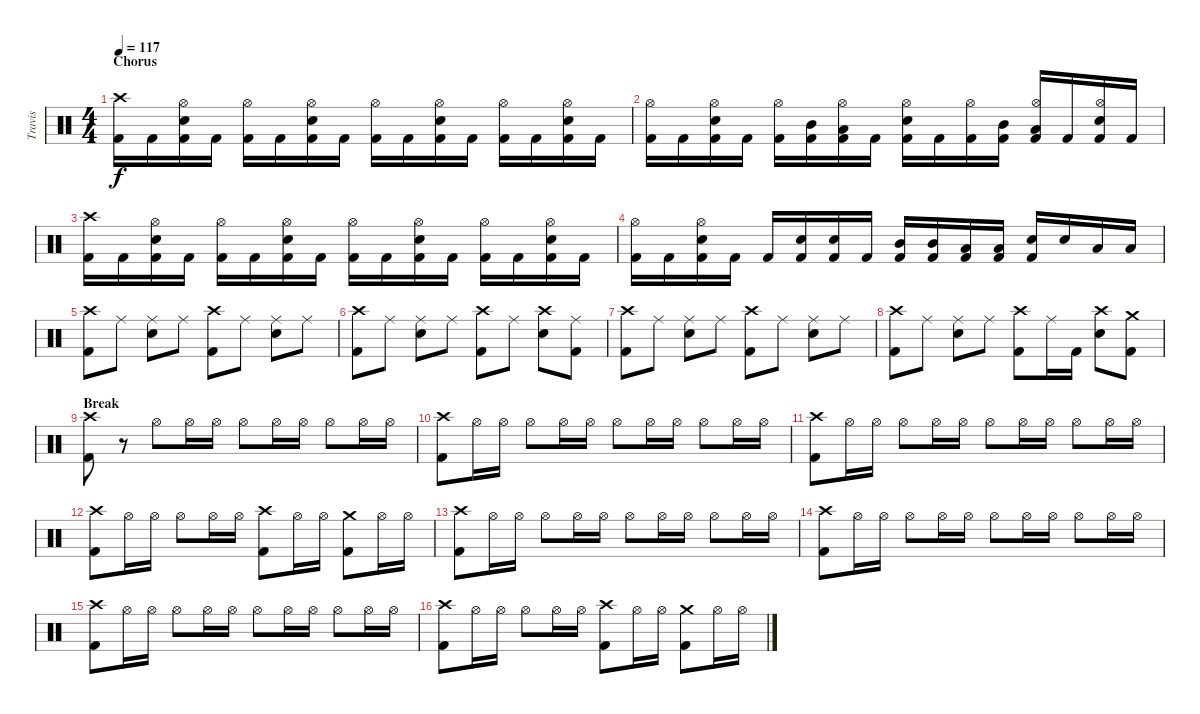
\track ("Travis" "Travis") {instrument percussion}
\staff {score}
\articulation defaults
\ts (4 4)
\section ("" "Chorus")
\tempo 117
\clef neutral
\ks c
("Crash high (hit)" "Kick (hit) 2").16{dy f} "Kick (hit) 2".16 ("Hi-Hat (open)" "Electric Snare (hit)" "Kick (hit) 2").16 "Kick (hit) 2".16 ("Hi-Hat (open)" "Kick (hit) 2").16 "Kick (hit) 2".16 ("Hi-Hat (open)" "Electric Snare (hit)" "Kick (hit) 2").16 "Kick (hit) 2".16 ("Hi-Hat (open)" "Kick (hit) 2").16 "Kick (hit) 2".16 ("Hi-Hat (open)" "Electric Snare (hit)" "Kick (hit) 2").16 "Kick (hit) 2".16 ("Hi-Hat (open)" "Kick (hit) 2").16 "Kick (hit) 2".16 ("Hi-Hat (open)" "Electric Snare (hit)" "Kick (hit) 2").16 "Kick (hit) 2".16 |
("Hi-Hat (open)" "Kick (hit) 2").16 "Kick (hit) 2".16 ("Hi-Hat (open)" "Electric Snare (hit)" "Kick (hit) 2").16 "Kick (hit) 2".16 ("Hi-Hat (open)" "Kick (hit) 2").16 ("Mid Tom (hit)" "Kick (hit) 2").16 ("Hi-Hat (open)" "Low Tom (hit)" "Kick (hit) 2").16 "Kick (hit) 2".16 ("Hi-Hat (open)" "Electric Snare (hit)" "Kick (hit) 2").16 "Kick (hit) 2".16 ("Hi-Hat (open)" "Kick (hit) 2").16 ("Mid Tom (hit)" "Kick (hit) 2").16 ("Hi-Hat (open)" "Low Tom (hit)" "Kick (hit) 2").16 "Kick (hit) 2".16 ("Hi-Hat (open)" "Electric Snare (hit)" "Kick (hit) 2").16 "Kick (hit) 2".16 |
("Crash high (hit)" "Kick (hit) 2").16 "Kick (hit) 2".16 ("Hi-Hat (open)" "Electric Snare (hit)" "Kick (hit) 2").16 "Kick (hit) 2".16 ("Hi-Hat (open)" "Kick (hit) 2").16 "Kick (hit) 2".16 ("Hi-Hat (open)" "Electric Snare (hit)" "Kick (hit) 2").16 "Kick (hit) 2".16 ("Hi-Hat (open)" "Kick (hit) 2").16 "Kick (hit) 2".16 ("Hi-Hat (open)" "Electric Snare (hit)" "Kick (hit) 2").16 "Kick (hit) 2".16 ("Hi-Hat (open)" "Kick (hit) 2").16 "Kick (hit) 2".16 ("Hi-Hat (open)" "Electric Snare (hit)" "Kick (hit) 2").16 "Kick (hit) 2".16 |
("Hi-Hat (open)" "Kick (hit) 2").16 "Kick (hit) 2".16 ("Hi-Hat (open)" "Electric Snare (hit)" "Kick (hit) 2").16 "Kick (hit) 2".16 "Kick (hit) 2".16 ("Electric Snare (hit)" "Kick (hit) 2").16 ("Electric Snare (hit)" "Kick (hit) 2").16 "Kick (hit) 2".16 ("Mid Tom (hit)" "Kick (hit) 2").16 ("Mid Tom (hit)" "Kick (hit) 2").16 ("Low Tom (hit)" "Kick (hit) 2").16 ("Low Tom (hit)" "Kick (hit) 2").16 ("Electric Snare (hit)" "Kick (hit) 2").16 "Electric Snare (hit)".16 "Low Tom (hit)".16 "Low Tom (hit)".16 |
("Crash high (hit)" "Kick (hit) 2").8 "Ride (middle)".8 ("Ride (middle)" "Electric Snare (hit)").8 "Ride (middle)".8 ("Crash high (hit)" "Kick (hit) 2").8 "Ride (middle)".8 ("Ride (middle)" "Electric Snare (hit)").8 "Ride (middle)".8 |
("Crash high (hit)" "Kick (hit) 2").8 "Ride (middle)".8 ("Ride (middle)" "Electric Snare (hit)").8 "Ride (middle)".8 ("Crash high (hit)" "Kick (hit) 2").8 "Ride (middle)".8 ("Crash high (hit)" "Electric Snare (hit)").8 ("Ride (middle)" "Kick (hit) 2").8 |
("Crash high (hit)" "Kick (hit) 2").8 "Ride (middle)".8 ("Ride (middle)" "Electric Snare (hit)").8 "Ride (middle)".8 ("Crash high (hit)" "Kick (hit) 2").8 "Ride (middle)".8 ("Ride (middle)" "Electric Snare (hit)").8 "Ride (middle)".8 |
("Crash high (hit)" "Kick (hit) 2").8 "Ride (middle)".8 ("Ride (middle)" "Electric Snare (hit)").8 "Ride (middle)".8 ("Crash high (hit)" "Kick (hit) 2").8 "Ride (middle)".16 "Kick (hit) 2".16 ("Crash high (hit)" "Electric Snare (hit)").8 ("Crash medium (hit)" "Kick (hit) 2").8 |
\section ("" "Break")
("Crash high (hit)" "Kick (hit) 2").8 r.8 "Hi-Hat (open)".8 "Hi-Hat (open)".16 "Hi-Hat (open)".16 "Hi-Hat (open)".8 "Hi-Hat (open)".16 "Hi-Hat (open)".16 "Hi-Hat (open)".8 "Hi-Hat (open)".16 "Hi-Hat (open)".16 |
("Crash high (hit)" "Kick (hit) 2").8 "Hi-Hat (open)".16 "Hi-Hat (open)".16 "Hi-Hat (open)".8 "Hi-Hat (open)".16 "Hi-Hat (open)".16 "Hi-Hat (open)".8 "Hi-Hat (open)".16 "Hi-Hat (open)".16 "Hi-Hat (open)".8 "Hi-Hat (open)".16 "Hi-Hat (open)".16 |
("Crash high (hit)" "Kick (hit) 2").8 "Hi-Hat (open)".16 "Hi-Hat (open)".16 "Hi-Hat (open)".8 "Hi-Hat (open)".16 "Hi-Hat (open)".16 "Hi-Hat (open)".8 "Hi-Hat (open)".16 "Hi-Hat (open)".16 "Hi-Hat (open)".8 "Hi-Hat (open)".16 "Hi-Hat (open)".16 |
("Crash high (hit)" "Kick (hit) 2").8 "Hi-Hat (open)".16 "Hi-Hat (open)".16 "Hi-Hat (open)".8 "Hi-Hat (open)".16 "Hi-Hat (open)".16 ("Crash high (hit)" "Kick (hit) 2").8 "Hi-Hat (open)".16 "Hi-Hat (open)".16 ("Crash medium (hit)" "Kick (hit) 2").8 "Hi-Hat (open)".16 "Hi-Hat (open)".16 |
("Crash high (hit)" "Kick (hit) 2").8 "Hi-Hat (open)".16 "Hi-Hat (open)".16 "Hi-Hat (open)".8 "Hi-Hat (open)".16 "Hi-Hat (open)".16 "Hi-Hat (open)".8 "Hi-Hat (open)".16 "Hi-Hat (open)".16 "Hi-Hat (open)".8 "Hi-Hat (open)".16 "Hi-Hat (open)".16 |
("Crash high (hit)" "Kick (hit) 2").8 "Hi-Hat (open)".16 "Hi-Hat (open)".16 "Hi-Hat (open)".8 "Hi-Hat (open)".16 "Hi-Hat (open)".16 "Hi-Hat (open)".8 "Hi-Hat (open)".16 "Hi-Hat (open)".16 "Hi-Hat (open)".8 "Hi-Hat (open)".16 "Hi-Hat (open)".16 |
("Crash high (hit)" "Kick (hit) 2").8 "Hi-Hat (open)".16 "Hi-Hat (open)".16 "Hi-Hat (open)".8 "Hi-Hat (open)".16 "Hi-Hat (open)".16 "Hi-Hat (open)".8 "Hi-Hat (open)".16 "Hi-Hat (open)".16 "Hi-Hat (open)".8 "Hi-Hat (open)".16 "Hi-Hat (open)".16 |
("Crash high (hit)" "Kick (hit) 2").8 "Hi-Hat (open)".16 "Hi-Hat (open)".16 "Hi-Hat (open)".8 "Hi-Hat (open)".16 "Hi-Hat (open)".16 ("Crash high (hit)" "Kick (hit) 2").8 "Hi-Hat (open)".16 "Hi-Hat (open)".16 ("Crash medium (hit)" "Kick (hit) 2").8 "Hi-Hat (open)".16 "Hi-Hat (open)".16
